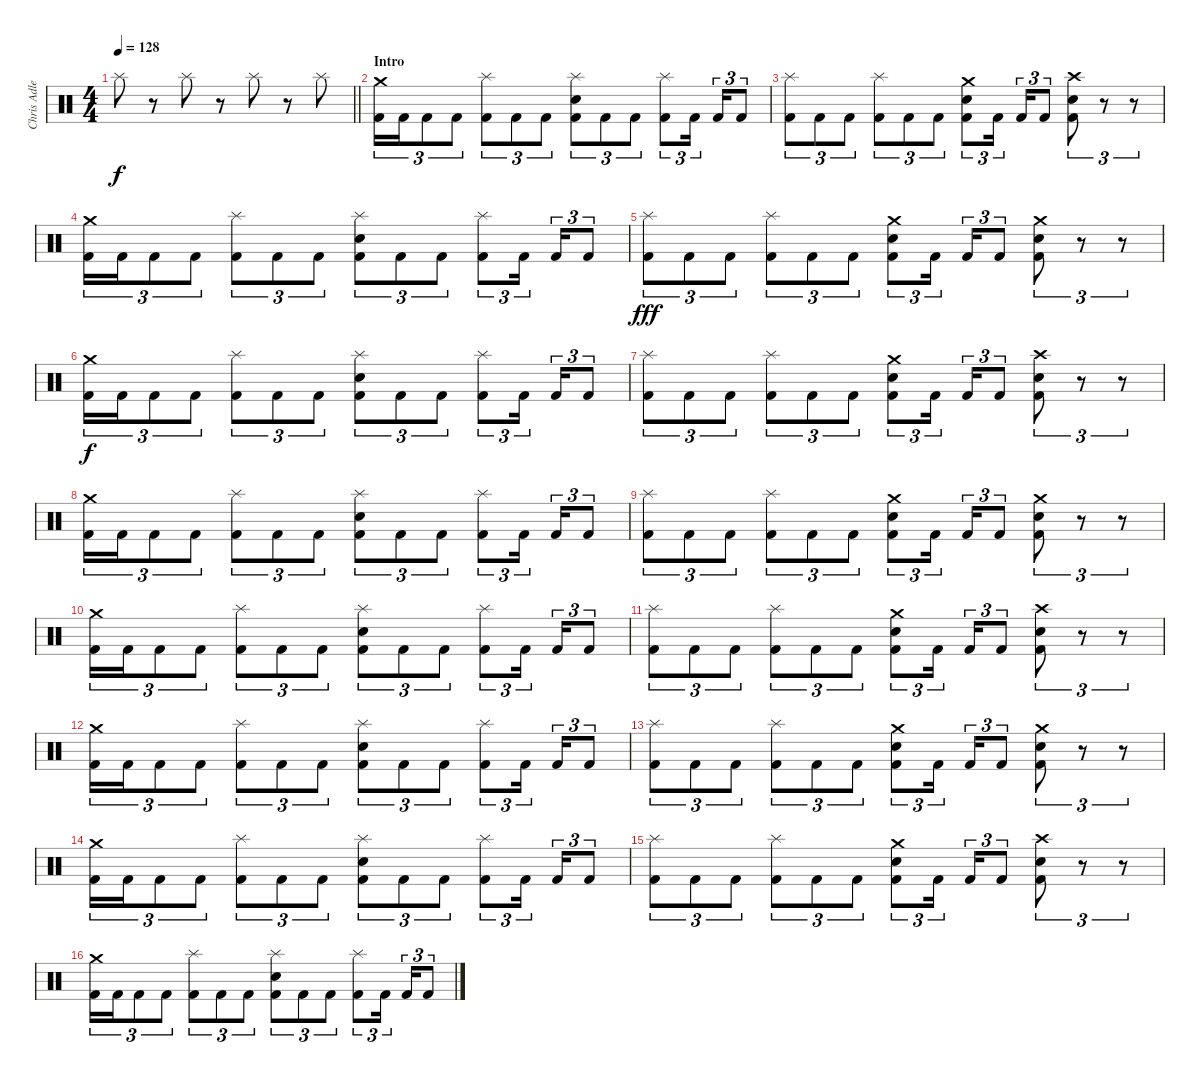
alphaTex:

\track ("Chris Adler" "Chris Adle") {instrument percussion}
\staff {score}
\articulation defaults
\ts (4 4)
\tempo 128
\clef neutral
\barLineRight lightlight
\ks c "Splash (hit)".8{dy f}
r.8 "Splash (hit)".8 r.8 "Splash (hit)".8 r.8 "Splash (hit)".8 |
\section ("" "Intro")
("Crash medium (hit)" "Kick (hit) 2").16{tu (3 2)} "Kick (hit) 2".16{tu (3 2)} "Kick (hit) 2".8{tu (3 2)} "Kick (hit) 2".8{tu (3 2)} ("Splash (hit)" "Kick (hit) 2").8{tu (3 2)} "Kick (hit) 2".8{tu (3 2)} "Kick (hit) 2".8{tu (3 2)} ("Splash (hit)" "Electric Snare (hit)" "Kick (hit) 2").8{tu (3 2)} "Kick (hit) 2".8{tu (3 2)} "Kick (hit) 2".8{tu (3 2)} ("Splash (hit)" "Kick (hit) 2").8{tu (3 2)} "Kick (hit) 2".16{tu (3 2) beam splitsecondary} "Kick (hit) 2".16{tu (3 2)} "Kick (hit) 2".8{tu (3 2)} |
("Splash (hit)" "Kick (hit) 2").8{tu (3 2)} "Kick (hit) 2".8{tu (3 2)} "Kick (hit) 2".8{tu (3 2)} ("Splash (hit)" "Kick (hit) 2").8{tu (3 2)} "Kick (hit) 2".8{tu (3 2)} "Kick (hit) 2".8{tu (3 2)} ("Crash medium (hit)" "Electric Snare (hit)" "Kick (hit) 2").8{tu (3 2)} "Kick (hit) 2".16{tu (3 2) beam splitsecondary} "Kick (hit) 2".16{tu (3 2)} "Kick (hit) 2".8{tu (3 2)} ("Crash high (hit)" "Electric Snare (hit)" "Kick (hit) 2").8{tu (3 2)} r.8{tu (3 2)} r.8{tu (3 2)} |
("Crash medium (hit)" "Kick (hit) 2").16{tu (3 2)} "Kick (hit) 2".16{tu (3 2)} "Kick (hit) 2".8{tu (3 2)} "Kick (hit) 2".8{tu (3 2)} ("Splash (hit)" "Kick (hit) 2").8{tu (3 2)} "Kick (hit) 2".8{tu (3 2)} "Kick (hit) 2".8{tu (3 2)} ("Splash (hit)" "Electric Snare (hit)" "Kick (hit) 2").8{tu (3 2)} "Kick (hit) 2".8{tu (3 2)} "Kick (hit) 2".8{tu (3 2)} ("Splash (hit)" "Kick (hit) 2").8{tu (3 2)} "Kick (hit) 2".16{tu (3 2) beam splitsecondary} "Kick (hit) 2".16{tu (3 2)} "Kick (hit) 2".8{tu (3 2)} |
("Splash (hit)" "Kick (hit) 2").8{tu (3 2) dy fff} "Kick (hit) 2".8{tu (3 2)} "Kick (hit) 2".8{tu (3 2)} ("Splash (hit)" "Kick (hit) 2").8{tu (3 2)} "Kick (hit) 2".8{tu (3 2)} "Kick (hit) 2".8{tu (3 2)} ("Crash medium (hit)" "Electric Snare (hit)" "Kick (hit) 2").8{tu (3 2)} "Kick (hit) 2".16{tu (3 2) beam splitsecondary} "Kick (hit) 2".16{tu (3 2)} "Kick (hit) 2".8{tu (3 2)} ("Crash medium (hit)" "Electric Snare (hit)" "Kick (hit) 2").8{tu (3 2)} r.8{tu (3 2)} r.8{tu (3 2)} |
("Crash medium (hit)" "Kick (hit) 2").16{tu (3 2) dy f} "Kick (hit) 2".16{tu (3 2)} "Kick (hit) 2".8{tu (3 2)} "Kick (hit) 2".8{tu (3 2)} ("Splash (hit)" "Kick (hit) 2").8{tu (3 2)} "Kick (hit) 2".8{tu (3 2)} "Kick (hit) 2".8{tu (3 2)} ("Splash (hit)" "Electric Snare (hit)" "Kick (hit) 2").8{tu (3 2)} "Kick (hit) 2".8{tu (3 2)} "Kick (hit) 2".8{tu (3 2)} ("Splash (hit)" "Kick (hit) 2").8{tu (3 2)} "Kick (hit) 2".16{tu (3 2) beam splitsecondary} "Kick (hit) 2".16{tu (3 2)} "Kick (hit) 2".8{tu (3 2)} |
("Splash (hit)" "Kick (hit) 2").8{tu (3 2)} "Kick (hit) 2".8{tu (3 2)} "Kick (hit) 2".8{tu (3 2)} ("Splash (hit)" "Kick (hit) 2").8{tu (3 2)} "Kick (hit) 2".8{tu (3 2)} "Kick (hit) 2".8{tu (3 2)} ("Crash medium (hit)" "Electric Snare (hit)" "Kick (hit) 2").8{tu (3 2)} "Kick (hit) 2".16{tu (3 2) beam splitsecondary} "Kick (hit) 2".16{tu (3 2)} "Kick (hit) 2".8{tu (3 2)} ("Crash high (hit)" "Electric Snare (hit)" "Kick (hit) 2").8{tu (3 2)} r.8{tu (3 2)} r.8{tu (3 2)} |
("Crash medium (hit)" "Kick (hit) 2").16{tu (3 2)} "Kick (hit) 2".16{tu (3 2)} "Kick (hit) 2".8{tu (3 2)} "Kick (hit) 2".8{tu (3 2)} ("Splash (hit)" "Kick (hit) 2").8{tu (3 2)} "Kick (hit) 2".8{tu (3 2)} "Kick (hit) 2".8{tu (3 2)} ("Splash (hit)" "Electric Snare (hit)" "Kick (hit) 2").8{tu (3 2)} "Kick (hit) 2".8{tu (3 2)} "Kick (hit) 2".8{tu (3 2)} ("Splash (hit)" "Kick (hit) 2").8{tu (3 2)} "Kick (hit) 2".16{tu (3 2) beam splitsecondary} "Kick (hit) 2".16{tu (3 2)} "Kick (hit) 2".8{tu (3 2)} |
("Splash (hit)" "Kick (hit) 2").8{tu (3 2)} "Kick (hit) 2".8{tu (3 2)} "Kick (hit) 2".8{tu (3 2)} ("Splash (hit)" "Kick (hit) 2").8{tu (3 2)} "Kick (hit) 2".8{tu (3 2)} "Kick (hit) 2".8{tu (3 2)} ("Crash medium (hit)" "Electric Snare (hit)" "Kick (hit) 2").8{tu (3 2)} "Kick (hit) 2".16{tu (3 2) beam splitsecondary} "Kick (hit) 2".16{tu (3 2)} "Kick (hit) 2".8{tu (3 2)} ("Crash medium (hit)" "Electric Snare (hit)" "Kick (hit) 2").8{tu (3 2)} r.8{tu (3 2)} r.8{tu (3 2)} |
("Crash medium (hit)" "Kick (hit) 2").16{tu (3 2)} "Kick (hit) 2".16{tu (3 2)} "Kick (hit) 2".8{tu (3 2)} "Kick (hit) 2".8{tu (3 2)} ("Splash (hit)" "Kick (hit) 2").8{tu (3 2)} "Kick (hit) 2".8{tu (3 2)} "Kick (hit) 2".8{tu (3 2)} ("Splash (hit)" "Electric Snare (hit)" "Kick (hit) 2").8{tu (3 2)} "Kick (hit) 2".8{tu (3 2)} "Kick (hit) 2".8{tu (3 2)} ("Splash (hit)" "Kick (hit) 2").8{tu (3 2)} "Kick (hit) 2".16{tu (3 2) beam splitsecondary} "Kick (hit) 2".16{tu (3 2)} "Kick (hit) 2".8{tu (3 2)} |
("Splash (hit)" "Kick (hit) 2").8{tu (3 2)} "Kick (hit) 2".8{tu (3 2)} "Kick (hit) 2".8{tu (3 2)} ("Splash (hit)" "Kick (hit) 2").8{tu (3 2)} "Kick (hit) 2".8{tu (3 2)} "Kick (hit) 2".8{tu (3 2)} ("Crash medium (hit)" "Electric Snare (hit)" "Kick (hit) 2").8{tu (3 2)} "Kick (hit) 2".16{tu (3 2) beam splitsecondary} "Kick (hit) 2".16{tu (3 2)} "Kick (hit) 2".8{tu (3 2)} ("Crash high (hit)" "Electric Snare (hit)" "Kick (hit) 2").8{tu (3 2)} r.8{tu (3 2)} r.8{tu (3 2)} |
("Crash medium (hit)" "Kick (hit) 2").16{tu (3 2)} "Kick (hit) 2".16{tu (3 2)} "Kick (hit) 2".8{tu (3 2)} "Kick (hit) 2".8{tu (3 2)} ("Splash (hit)" "Kick (hit) 2").8{tu (3 2)} "Kick (hit) 2".8{tu (3 2)} "Kick (hit) 2".8{tu (3 2)} ("Splash (hit)" "Electric Snare (hit)" "Kick (hit) 2").8{tu (3 2)} "Kick (hit) 2".8{tu (3 2)} "Kick (hit) 2".8{tu (3 2)} ("Splash (hit)" "Kick (hit) 2").8{tu (3 2)} "Kick (hit) 2".16{tu (3 2) beam splitsecondary} "Kick (hit) 2".16{tu (3 2)} "Kick (hit) 2".8{tu (3 2)} |
("Splash (hit)" "Kick (hit) 2").8{tu (3 2)} "Kick (hit) 2".8{tu (3 2)} "Kick (hit) 2".8{tu (3 2)} ("Splash (hit)" "Kick (hit) 2").8{tu (3 2)} "Kick (hit) 2".8{tu (3 2)} "Kick (hit) 2".8{tu (3 2)} ("Crash medium (hit)" "Electric Snare (hit)" "Kick (hit) 2").8{tu (3 2)} "Kick (hit) 2".16{tu (3 2) beam splitsecondary} "Kick (hit) 2".16{tu (3 2)} "Kick (hit) 2".8{tu (3 2)} ("Crash medium (hit)" "Electric Snare (hit)" "Kick (hit) 2").8{tu (3 2)} r.8{tu (3 2)} r.8{tu (3 2)} |
("Crash medium (hit)" "Kick (hit) 2").16{tu (3 2)} "Kick (hit) 2".16{tu (3 2)} "Kick (hit) 2".8{tu (3 2)} "Kick (hit) 2".8{tu (3 2)} ("Splash (hit)" "Kick (hit) 2").8{tu (3 2)} "Kick (hit) 2".8{tu (3 2)} "Kick (hit) 2".8{tu (3 2)} ("Splash (hit)" "Electric Snare (hit)" "Kick (hit) 2").8{tu (3 2)} "Kick (hit) 2".8{tu (3 2)} "Kick (hit) 2".8{tu (3 2)} ("Splash (hit)" "Kick (hit) 2").8{tu (3 2)} "Kick (hit) 2".16{tu (3 2) beam splitsecondary} "Kick (hit) 2".16{tu (3 2)} "Kick (hit) 2".8{tu (3 2)} |
("Splash (hit)" "Kick (hit) 2").8{tu (3 2)} "Kick (hit) 2".8{tu (3 2)} "Kick (hit) 2".8{tu (3 2)} ("Splash (hit)" "Kick (hit) 2").8{tu (3 2)} "Kick (hit) 2".8{tu (3 2)} "Kick (hit) 2".8{tu (3 2)} ("Crash medium (hit)" "Electric Snare (hit)" "Kick (hit) 2").8{tu (3 2)} "Kick (hit) 2".16{tu (3 2) beam splitsecondary} "Kick (hit) 2".16{tu (3 2)} "Kick (hit) 2".8{tu (3 2)} ("Crash high (hit)" "Electric Snare (hit)" "Kick (hit) 2").8{tu (3 2)} r.8{tu (3 2)} r.8{tu (3 2)} |
("Crash medium (hit)" "Kick (hit) 2").16{tu (3 2)} "Kick (hit) 2".16{tu (3 2)} "Kick (hit) 2".8{tu (3 2)} "Kick (hit) 2".8{tu (3 2)} ("Splash (hit)" "Kick (hit) 2").8{tu (3 2)} "Kick (hit) 2".8{tu (3 2)} "Kick (hit) 2".8{tu (3 2)} ("Splash (hit)" "Electric Snare (hit)" "Kick (hit) 2").8{tu (3 2)} "Kick (hit) 2".8{tu (3 2)} "Kick (hit) 2".8{tu (3 2)} ("Splash (hit)" "Kick (hit) 2").8{tu (3 2)} "Kick (hit) 2".16{tu (3 2) beam splitsecondary} "Kick (hit) 2".16{tu (3 2)} "Kick (hit) 2".8{tu (3 2)}
